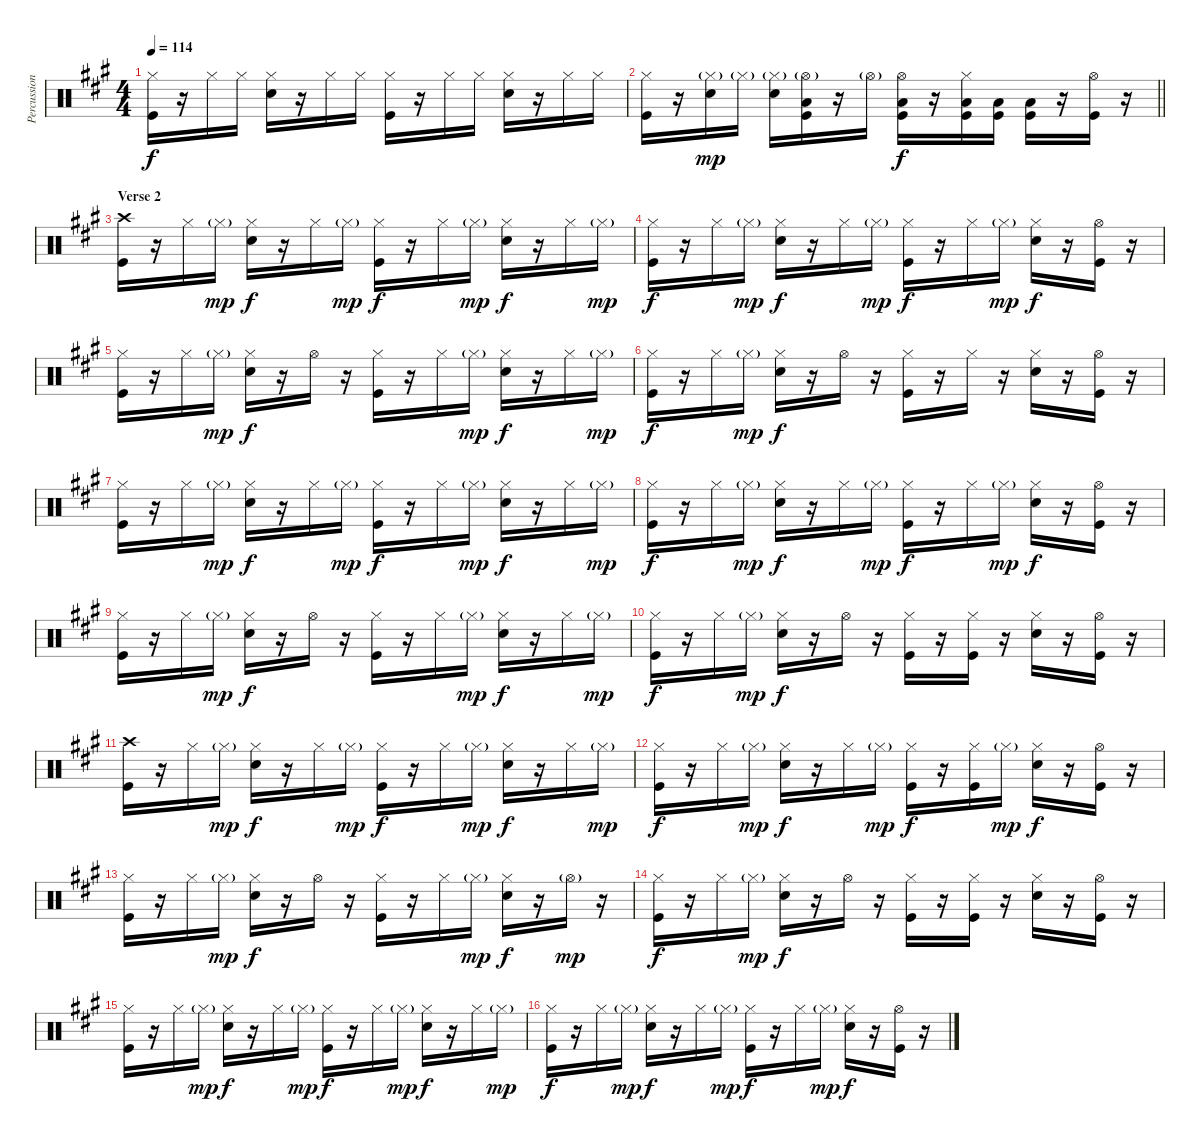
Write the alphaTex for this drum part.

\track ("Percussion" "Percussion") {instrument percussion}
\staff {score}
\articulation defaults
\ts (4 4)
\tempo 114
\clef neutral
\ks a
("Hi-Hat (closed)" "Kick (hit)").16{dy f} r.16 "Hi-Hat (closed)".16 "Hi-Hat (closed)".16 ("Hi-Hat (closed)" "Snare (hit) 2").16 r.16 "Hi-Hat (closed)".16 "Hi-Hat (closed)".16 ("Hi-Hat (closed)" "Kick (hit)").16 r.16 "Hi-Hat (closed)".16 "Hi-Hat (closed)".16 ("Hi-Hat (closed)" "Snare (hit) 2").16 r.16 "Hi-Hat (closed)".16 "Hi-Hat (closed)".16 |
\barLineRight lightlight
("Hi-Hat (closed)" "Kick (hit)").16 r.16 ("Hi-Hat (closed)"{g} "Snare (hit) 2").16{dy mp} "Hi-Hat (closed)"{g}.16 ("Hi-Hat (closed)"{g} "Snare (hit) 2").16 ("Hi-Hat (open)"{g} "Low Tom (hit)" "Kick (hit)").16 r.16 "Hi-Hat (open)"{g}.16 ("Hi-Hat (open)" "Low Tom (hit)" "Kick (hit)").16{dy f} r.16 ("Hi-Hat (closed)" "Low Tom (hit)" "Kick (hit)").16 ("Low Tom (hit)" "Kick (hit)").16 ("Low Tom (hit)" "Kick (hit)").16 r.16 ("Hi-Hat (open)" "Kick (hit)").16 r.16 |
\section ("" "Verse 2")
("Crash high (hit)" "Kick (hit)").16 r.16 "Hi-Hat (closed)".16 "Hi-Hat (closed)"{g}.16{dy mp} ("Hi-Hat (closed)" "Snare (hit) 2").16{dy f} r.16 "Hi-Hat (closed)".16 "Hi-Hat (closed)"{g}.16{dy mp} ("Hi-Hat (closed)" "Kick (hit)").16{dy f} r.16 "Hi-Hat (closed)".16 "Hi-Hat (closed)"{g}.16{dy mp} ("Hi-Hat (closed)" "Snare (hit) 2").16{dy f} r.16 "Hi-Hat (closed)".16 "Hi-Hat (closed)"{g}.16{dy mp} |
("Hi-Hat (closed)" "Kick (hit)").16{dy f} r.16 "Hi-Hat (closed)".16 "Hi-Hat (closed)"{g}.16{dy mp} ("Hi-Hat (closed)" "Snare (hit) 2").16{dy f} r.16 "Hi-Hat (closed)".16 "Hi-Hat (closed)"{g}.16{dy mp} ("Hi-Hat (closed)" "Kick (hit)").16{dy f} r.16 "Hi-Hat (closed)".16 "Hi-Hat (closed)"{g}.16{dy mp} ("Hi-Hat (closed)" "Snare (hit) 2").16{dy f} r.16 ("Hi-Hat (open)" "Kick (hit)").16 r.16 |
("Hi-Hat (closed)" "Kick (hit)").16 r.16 "Hi-Hat (closed)".16 "Hi-Hat (closed)"{g}.16{dy mp} ("Hi-Hat (closed)" "Snare (hit) 2").16{dy f} r.16 "Hi-Hat (open)".16 r.16 ("Hi-Hat (closed)" "Kick (hit)").16 r.16 "Hi-Hat (closed)".16 "Hi-Hat (closed)"{g}.16{dy mp} ("Hi-Hat (closed)" "Snare (hit) 2").16{dy f} r.16 "Hi-Hat (closed)".16 "Hi-Hat (closed)"{g}.16{dy mp} |
("Hi-Hat (closed)" "Kick (hit)").16{dy f} r.16 "Hi-Hat (closed)".16 "Hi-Hat (closed)"{g}.16{dy mp} ("Hi-Hat (closed)" "Snare (hit) 2").16{dy f} r.16 "Hi-Hat (open)".16 r.16 ("Hi-Hat (closed)" "Kick (hit)").16 r.16 "Hi-Hat (closed)".16 r.16 ("Hi-Hat (closed)" "Snare (hit) 2").16 r.16 ("Hi-Hat (open)" "Kick (hit)").16 r.16 |
("Hi-Hat (closed)" "Kick (hit)").16 r.16 "Hi-Hat (closed)".16 "Hi-Hat (closed)"{g}.16{dy mp} ("Hi-Hat (closed)" "Snare (hit) 2").16{dy f} r.16 "Hi-Hat (closed)".16 "Hi-Hat (closed)"{g}.16{dy mp} ("Hi-Hat (closed)" "Kick (hit)").16{dy f} r.16 "Hi-Hat (closed)".16 "Hi-Hat (closed)"{g}.16{dy mp} ("Hi-Hat (closed)" "Snare (hit) 2").16{dy f} r.16 "Hi-Hat (closed)".16 "Hi-Hat (closed)"{g}.16{dy mp} |
("Hi-Hat (closed)" "Kick (hit)").16{dy f} r.16 "Hi-Hat (closed)".16 "Hi-Hat (closed)"{g}.16{dy mp} ("Hi-Hat (closed)" "Snare (hit) 2").16{dy f} r.16 "Hi-Hat (closed)".16 "Hi-Hat (closed)"{g}.16{dy mp} ("Hi-Hat (closed)" "Kick (hit)").16{dy f} r.16 "Hi-Hat (closed)".16 "Hi-Hat (closed)"{g}.16{dy mp} ("Hi-Hat (closed)" "Snare (hit) 2").16{dy f} r.16 ("Hi-Hat (open)" "Kick (hit)").16 r.16 |
("Hi-Hat (closed)" "Kick (hit)").16 r.16 "Hi-Hat (closed)".16 "Hi-Hat (closed)"{g}.16{dy mp} ("Hi-Hat (closed)" "Snare (hit) 2").16{dy f} r.16 "Hi-Hat (open)".16 r.16 ("Hi-Hat (closed)" "Kick (hit)").16 r.16 "Hi-Hat (closed)".16 "Hi-Hat (closed)"{g}.16{dy mp} ("Hi-Hat (closed)" "Snare (hit) 2").16{dy f} r.16 "Hi-Hat (closed)".16 "Hi-Hat (closed)"{g}.16{dy mp} |
("Hi-Hat (closed)" "Kick (hit)").16{dy f} r.16 "Hi-Hat (closed)".16 "Hi-Hat (closed)"{g}.16{dy mp} ("Hi-Hat (closed)" "Snare (hit) 2").16{dy f} r.16 "Hi-Hat (open)".16 r.16 ("Hi-Hat (closed)" "Kick (hit)").16 r.16 ("Hi-Hat (closed)" "Kick (hit)").16 r.16 ("Hi-Hat (closed)" "Snare (hit) 2").16 r.16 ("Hi-Hat (open)" "Kick (hit)").16 r.16 |
("Crash high (hit)" "Kick (hit)").16 r.16 "Hi-Hat (closed)".16 "Hi-Hat (closed)"{g}.16{dy mp} ("Hi-Hat (closed)" "Snare (hit) 2").16{dy f} r.16 "Hi-Hat (closed)".16 "Hi-Hat (closed)"{g}.16{dy mp} ("Hi-Hat (closed)" "Kick (hit)").16{dy f} r.16 "Hi-Hat (closed)".16 "Hi-Hat (closed)"{g}.16{dy mp} ("Hi-Hat (closed)" "Snare (hit) 2").16{dy f} r.16 "Hi-Hat (closed)".16 "Hi-Hat (closed)"{g}.16{dy mp} |
("Hi-Hat (closed)" "Kick (hit)").16{dy f} r.16 "Hi-Hat (closed)".16 "Hi-Hat (closed)"{g}.16{dy mp} ("Hi-Hat (closed)" "Snare (hit) 2").16{dy f} r.16 "Hi-Hat (closed)".16 "Hi-Hat (closed)"{g}.16{dy mp} ("Hi-Hat (closed)" "Kick (hit)").16{dy f} r.16 ("Hi-Hat (closed)" "Kick (hit)").16 "Hi-Hat (closed)"{g}.16{dy mp} ("Hi-Hat (closed)" "Snare (hit) 2").16{dy f} r.16 ("Hi-Hat (open)" "Kick (hit)").16 r.16 |
("Hi-Hat (closed)" "Kick (hit)").16 r.16 "Hi-Hat (closed)".16 "Hi-Hat (closed)"{g}.16{dy mp} ("Hi-Hat (closed)" "Snare (hit) 2").16{dy f} r.16 "Hi-Hat (open)".16 r.16 ("Hi-Hat (closed)" "Kick (hit)").16 r.16 "Hi-Hat (closed)".16 "Hi-Hat (closed)"{g}.16{dy mp} ("Hi-Hat (closed)" "Snare (hit) 2").16{dy f} r.16 "Hi-Hat (open)"{g}.16{dy mp} r.16 |
("Hi-Hat (closed)" "Kick (hit)").16{dy f} r.16 "Hi-Hat (closed)".16 "Hi-Hat (closed)"{g}.16{dy mp} ("Hi-Hat (closed)" "Snare (hit) 2").16{dy f} r.16 "Hi-Hat (open)".16 r.16 ("Hi-Hat (closed)" "Kick (hit)").16 r.16 ("Hi-Hat (closed)" "Kick (hit)").16 r.16 ("Hi-Hat (closed)" "Snare (hit) 2").16 r.16 ("Hi-Hat (open)" "Kick (hit)").16 r.16 |
("Hi-Hat (closed)" "Kick (hit)").16 r.16 "Hi-Hat (closed)".16 "Hi-Hat (closed)"{g}.16{dy mp} ("Hi-Hat (closed)" "Snare (hit) 2").16{dy f} r.16 "Hi-Hat (closed)".16 "Hi-Hat (closed)"{g}.16{dy mp} ("Hi-Hat (closed)" "Kick (hit)").16{dy f} r.16 "Hi-Hat (closed)".16 "Hi-Hat (closed)"{g}.16{dy mp} ("Hi-Hat (closed)" "Snare (hit) 2").16{dy f} r.16 "Hi-Hat (closed)".16 "Hi-Hat (closed)"{g}.16{dy mp} |
("Hi-Hat (closed)" "Kick (hit)").16{dy f} r.16 "Hi-Hat (closed)".16 "Hi-Hat (closed)"{g}.16{dy mp} ("Hi-Hat (closed)" "Snare (hit) 2").16{dy f} r.16 "Hi-Hat (closed)".16 "Hi-Hat (closed)"{g}.16{dy mp} ("Hi-Hat (closed)" "Kick (hit)").16{dy f} r.16 "Hi-Hat (closed)".16 "Hi-Hat (closed)"{g}.16{dy mp} ("Hi-Hat (closed)" "Snare (hit) 2").16{dy f} r.16 ("Hi-Hat (open)" "Kick (hit)").16 r.16
